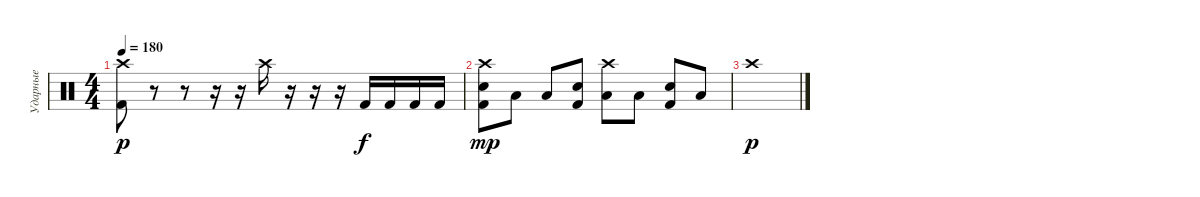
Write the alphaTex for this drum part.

\track ("Ударные" "Ударные") {instrument percussion}
\staff {score}
\articulation defaults
\ts (4 4)
\tempo 180
\clef neutral
\ks c
("Crash high (hit)" "Kick (hit) 2").8{dy p} r.8 r.8 r.16 r.16 "Crash high (hit)".16 r.16 r.16 r.16 "Kick (hit) 2".16{dy f} "Kick (hit) 2".16 "Kick (hit) 2".16 "Kick (hit) 2".16 |
("Crash high (hit)" "Snare (hit) 2" "Kick (hit) 2").8{dy mp} "Low Tom (hit)".8 "Low Tom (hit)".8 ("Snare (hit) 2" "Kick (hit) 2").8 ("Crash high (hit)" "Low Tom (hit)").8 "Low Tom (hit)".8 ("Snare (hit) 2" "Kick (hit) 2").8 "Low Tom (hit)".8 |
"Crash high (hit)".1{dy p}
